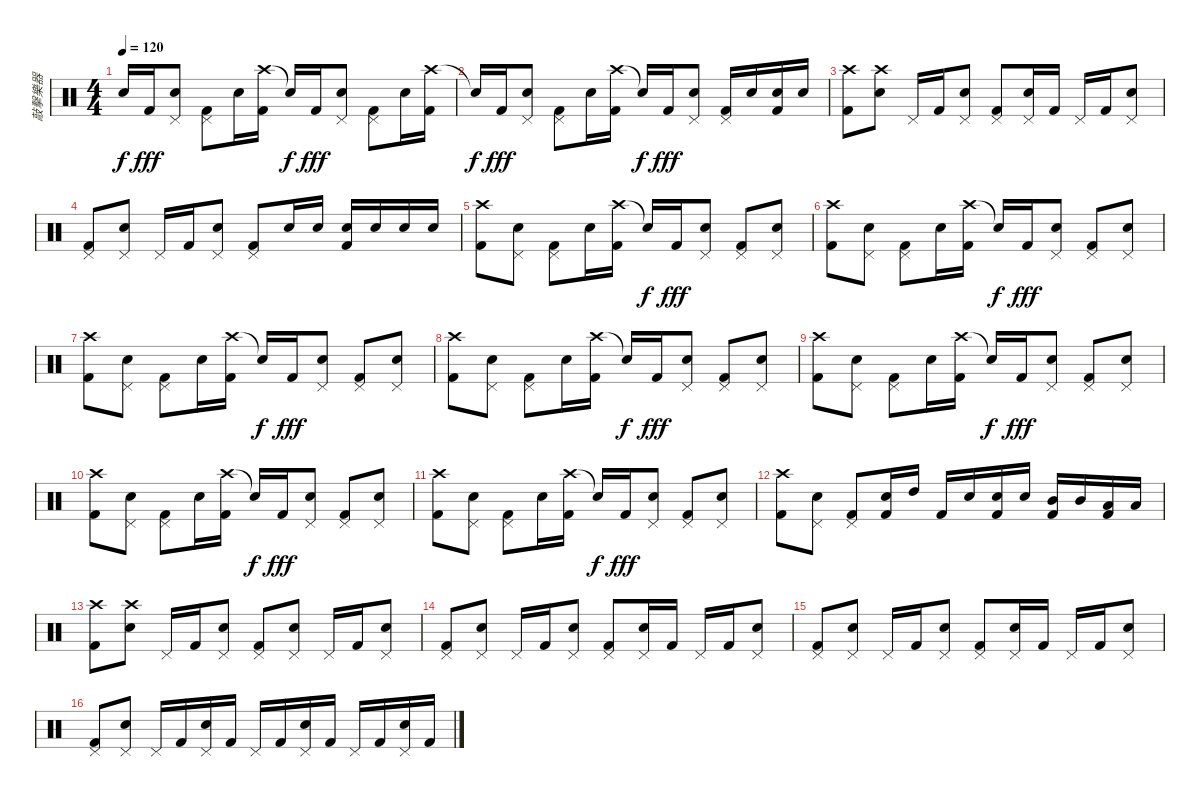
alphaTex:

\track ("敲擊樂器" "敲擊樂器") {instrument percussion}
\staff {score}
\articulation defaults
\ts (4 4)
\tempo 120
\clef neutral
\ks c "Snare (hit)"{t}.16{dy f} "Kick (hit) 2".16{dy fff}
("Pedal Hi-Hat (hit)" "Snare (hit) 2").8 ("Pedal Hi-Hat (hit)" "Kick (hit) 2").8 "Snare (hit) 2".16 ("Crash high (hit)" "Kick (hit) 2").16 "Snare (hit)"{t}.16{dy f} "Kick (hit) 2".16{dy fff} ("Pedal Hi-Hat (hit)" "Snare (hit) 2").8 ("Pedal Hi-Hat (hit)" "Kick (hit) 2").8 "Snare (hit) 2".16 ("Crash high (hit)" "Kick (hit) 2").16 |
"Snare (hit)"{t}.16{dy f} "Kick (hit) 2".16{dy fff} ("Pedal Hi-Hat (hit)" "Snare (hit) 2").8 ("Pedal Hi-Hat (hit)" "Kick (hit) 2").8 "Snare (hit) 2".16 ("Crash high (hit)" "Kick (hit) 2").16 "Snare (hit)"{t}.16{dy f} "Kick (hit) 2".16{dy fff} ("Pedal Hi-Hat (hit)" "Snare (hit) 2").8 ("Pedal Hi-Hat (hit)" "Kick (hit) 2").16 "Snare (hit) 2".16 ("Snare (hit) 2" "Kick (hit) 2").16 "Snare (hit) 2".16 |
("Crash high (hit)" "Kick (hit) 2").8 ("Crash high (hit)" "Snare (hit) 2").8 "Pedal Hi-Hat (hit)".16 "Kick (hit) 2".16 ("Pedal Hi-Hat (hit)" "Snare (hit) 2").8 ("Pedal Hi-Hat (hit)" "Kick (hit) 2").8 ("Pedal Hi-Hat (hit)" "Snare (hit) 2").16 "Kick (hit) 2".16 "Pedal Hi-Hat (hit)".16 "Kick (hit) 2".16 ("Pedal Hi-Hat (hit)" "Snare (hit) 2").8 |
("Pedal Hi-Hat (hit)" "Kick (hit) 2").8 ("Pedal Hi-Hat (hit)" "Snare (hit) 2").8 "Pedal Hi-Hat (hit)".16 "Kick (hit) 2".16 ("Pedal Hi-Hat (hit)" "Snare (hit) 2").8 ("Pedal Hi-Hat (hit)" "Kick (hit) 2").8 "Snare (hit) 2".16 "Snare (hit) 2".16 ("Snare (hit) 2" "Kick (hit) 2").16 "Snare (hit) 2".16 "Snare (hit) 2".16 "Snare (hit) 2".16 |
("Crash high (hit)" "Kick (hit) 2").8 ("Pedal Hi-Hat (hit)" "Snare (hit) 2").8 ("Pedal Hi-Hat (hit)" "Kick (hit) 2").8 "Snare (hit) 2".16 ("Crash high (hit)" "Kick (hit) 2").16 "Snare (hit)"{t}.16{dy f} "Kick (hit) 2".16{dy fff} ("Pedal Hi-Hat (hit)" "Snare (hit) 2").8 ("Pedal Hi-Hat (hit)" "Kick (hit) 2").8 ("Pedal Hi-Hat (hit)" "Snare (hit) 2").8 |
("Crash high (hit)" "Kick (hit) 2").8 ("Pedal Hi-Hat (hit)" "Snare (hit) 2").8 ("Pedal Hi-Hat (hit)" "Kick (hit) 2").8 "Snare (hit) 2".16 ("Crash high (hit)" "Kick (hit) 2").16 "Snare (hit)"{t}.16{dy f} "Kick (hit) 2".16{dy fff} ("Pedal Hi-Hat (hit)" "Snare (hit) 2").8 ("Pedal Hi-Hat (hit)" "Kick (hit) 2").8 ("Pedal Hi-Hat (hit)" "Snare (hit) 2").8 |
("Crash high (hit)" "Kick (hit) 2").8 ("Pedal Hi-Hat (hit)" "Snare (hit) 2").8 ("Pedal Hi-Hat (hit)" "Kick (hit) 2").8 "Snare (hit) 2".16 ("Crash high (hit)" "Kick (hit) 2").16 "Snare (hit)"{t}.16{dy f} "Kick (hit) 2".16{dy fff} ("Pedal Hi-Hat (hit)" "Snare (hit) 2").8 ("Pedal Hi-Hat (hit)" "Kick (hit) 2").8 ("Pedal Hi-Hat (hit)" "Snare (hit) 2").8 |
("Crash high (hit)" "Kick (hit) 2").8 ("Pedal Hi-Hat (hit)" "Snare (hit) 2").8 ("Pedal Hi-Hat (hit)" "Kick (hit) 2").8 "Snare (hit) 2".16 ("Crash high (hit)" "Kick (hit) 2").16 "Snare (hit)"{t}.16{dy f} "Kick (hit) 2".16{dy fff} ("Pedal Hi-Hat (hit)" "Snare (hit) 2").8 ("Pedal Hi-Hat (hit)" "Kick (hit) 2").8 ("Pedal Hi-Hat (hit)" "Snare (hit) 2").8 |
("Crash high (hit)" "Kick (hit) 2").8 ("Pedal Hi-Hat (hit)" "Snare (hit) 2").8 ("Pedal Hi-Hat (hit)" "Kick (hit) 2").8 "Snare (hit) 2".16 ("Crash high (hit)" "Kick (hit) 2").16 "Snare (hit)"{t}.16{dy f} "Kick (hit) 2".16{dy fff} ("Pedal Hi-Hat (hit)" "Snare (hit) 2").8 ("Pedal Hi-Hat (hit)" "Kick (hit) 2").8 ("Pedal Hi-Hat (hit)" "Snare (hit) 2").8 |
("Crash high (hit)" "Kick (hit) 2").8 ("Pedal Hi-Hat (hit)" "Snare (hit) 2").8 ("Pedal Hi-Hat (hit)" "Kick (hit) 2").8 "Snare (hit) 2".16 ("Crash high (hit)" "Kick (hit) 2").16 "Snare (hit)"{t}.16{dy f} "Kick (hit) 2".16{dy fff} ("Pedal Hi-Hat (hit)" "Snare (hit) 2").8 ("Pedal Hi-Hat (hit)" "Kick (hit) 2").8 ("Pedal Hi-Hat (hit)" "Snare (hit) 2").8 |
("Crash high (hit)" "Kick (hit) 2").8 ("Pedal Hi-Hat (hit)" "Snare (hit) 2").8 ("Pedal Hi-Hat (hit)" "Kick (hit) 2").8 "Snare (hit) 2".16 ("Crash high (hit)" "Kick (hit) 2").16 "Snare (hit)"{t}.16{dy f} "Kick (hit) 2".16{dy fff} ("Pedal Hi-Hat (hit)" "Snare (hit) 2").8 ("Pedal Hi-Hat (hit)" "Kick (hit) 2").8 ("Pedal Hi-Hat (hit)" "Snare (hit) 2").8 |
("Crash high (hit)" "Kick (hit) 2").8 ("Pedal Hi-Hat (hit)" "Snare (hit) 2").8 ("Pedal Hi-Hat (hit)" "Kick (hit) 2").8 ("Snare (hit) 2" "Kick (hit) 2").16 "High Tom (hit)".16 "Kick (hit) 2".16 "Snare (hit) 2".16 ("Snare (hit) 2" "Kick (hit) 2").16 "Snare (hit) 2".16 ("Mid Tom (hit)" "Kick (hit) 2").16 "Mid Tom (hit)".16 ("Low Tom (hit)" "Kick (hit) 2").16 "Low Tom (hit)".16 |
("Crash high (hit)" "Kick (hit) 2").8 ("Crash high (hit)" "Snare (hit) 2").8 "Pedal Hi-Hat (hit)".16 "Kick (hit) 2".16 ("Pedal Hi-Hat (hit)" "Snare (hit) 2").8 ("Pedal Hi-Hat (hit)" "Kick (hit) 2").8 ("Pedal Hi-Hat (hit)" "Snare (hit) 2").8 "Pedal Hi-Hat (hit)".16 "Kick (hit) 2".16 ("Pedal Hi-Hat (hit)" "Snare (hit) 2").8 |
("Pedal Hi-Hat (hit)" "Kick (hit) 2").8 ("Pedal Hi-Hat (hit)" "Snare (hit) 2").8 "Pedal Hi-Hat (hit)".16 "Kick (hit) 2".16 ("Pedal Hi-Hat (hit)" "Snare (hit) 2").8 ("Pedal Hi-Hat (hit)" "Kick (hit) 2").8 ("Pedal Hi-Hat (hit)" "Snare (hit) 2").16 "Kick (hit) 2".16 "Pedal Hi-Hat (hit)".16 "Kick (hit) 2".16 ("Pedal Hi-Hat (hit)" "Snare (hit) 2").8 |
("Pedal Hi-Hat (hit)" "Kick (hit) 2").8 ("Pedal Hi-Hat (hit)" "Snare (hit) 2").8 "Pedal Hi-Hat (hit)".16 "Kick (hit) 2".16 ("Pedal Hi-Hat (hit)" "Snare (hit) 2").8 ("Pedal Hi-Hat (hit)" "Kick (hit) 2").8 ("Pedal Hi-Hat (hit)" "Snare (hit) 2").16 "Kick (hit) 2".16 "Pedal Hi-Hat (hit)".16 "Kick (hit) 2".16 ("Pedal Hi-Hat (hit)" "Snare (hit) 2").8 |
("Pedal Hi-Hat (hit)" "Kick (hit) 2").8 ("Pedal Hi-Hat (hit)" "Snare (hit) 2").8 "Pedal Hi-Hat (hit)".16 "Kick (hit) 2".16 ("Pedal Hi-Hat (hit)" "Snare (hit) 2").16 "Kick (hit) 2".16 "Pedal Hi-Hat (hit)".16 "Kick (hit) 2".16 ("Pedal Hi-Hat (hit)" "Snare (hit) 2").16 "Kick (hit) 2".16 "Pedal Hi-Hat (hit)".16 "Kick (hit) 2".16 ("Pedal Hi-Hat (hit)" "Snare (hit) 2").16 "Kick (hit) 2".16
